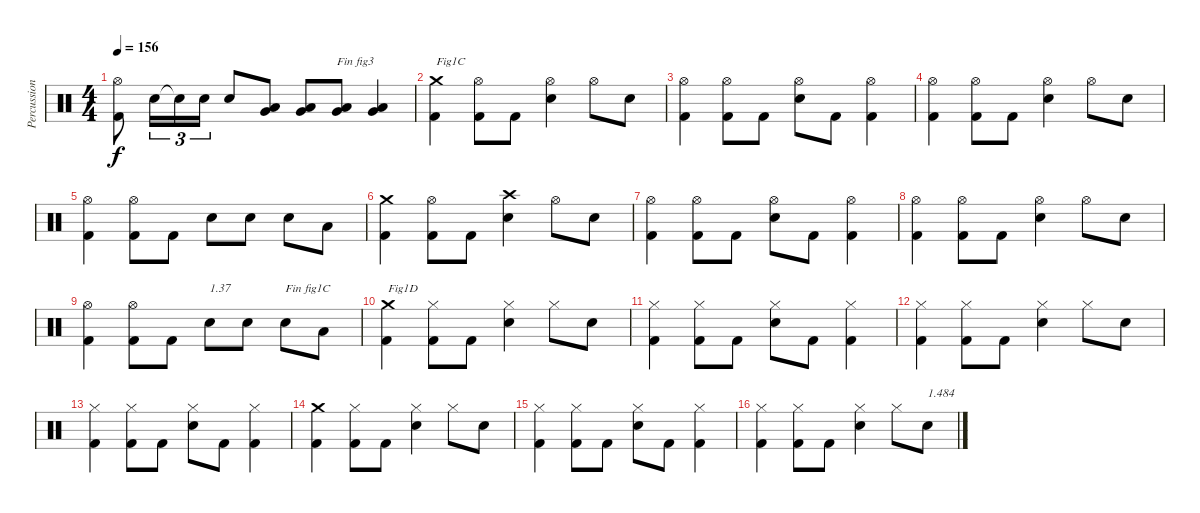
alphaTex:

\track ("Percussions" "Percussion") {instrument percussion}
\staff {score}
\articulation defaults
\ts (4 4)
\tempo 156
\clef neutral
\ks c
("Kick (hit) 2" "Hi-Hat (open)").8{dy f} "Electric Snare (hit)".16{tu (3 2)} "Snare (hit)"{t}.16{tu (3 2)} "Electric Snare (hit)".16{tu (3 2)} "Electric Snare (hit)".8 ("Very Low Tom (hit)" "Low Tom (hit)").8 ("Very Low Tom (hit)" "Low Tom (hit)").8 ("Low Floor Tom (hit)" "Very Low Tom (hit)").8{txt "Fin fig3"} ("Low Floor Tom (hit)" "Very Low Tom (hit)").4 |
("Kick (hit) 2" "Crash medium (hit)").4{txt "Fig1C"} ("Kick (hit) 2" "Hi-Hat (open)").8 "Kick (hit) 2".8 ("Electric Snare (hit)" "Hi-Hat (open)").4 "Hi-Hat (open)".8 "Electric Snare (hit)".8 |
("Kick (hit) 2" "Hi-Hat (open)").4 ("Kick (hit) 2" "Hi-Hat (open)").8 "Kick (hit) 2".8 ("Electric Snare (hit)" "Hi-Hat (open)").8 "Kick (hit) 2".8 ("Kick (hit) 2" "Hi-Hat (open)").4 |
("Kick (hit) 2" "Hi-Hat (open)").4 ("Kick (hit) 2" "Hi-Hat (open)").8 "Kick (hit) 2".8 ("Electric Snare (hit)" "Hi-Hat (open)").4 "Hi-Hat (open)".8 "Electric Snare (hit)".8 |
("Kick (hit) 2" "Hi-Hat (open)").4 ("Kick (hit) 2" "Hi-Hat (open)").8 "Kick (hit) 2".8 "Electric Snare (hit)".8 "Electric Snare (hit)".8 "Electric Snare (hit)".8 "Low Tom (hit)".8 |
("Kick (hit) 2" "Crash medium (hit)").4 ("Kick (hit) 2" "Hi-Hat (open)").8 "Kick (hit) 2".8 ("Electric Snare (hit)" "Crash high (hit)").4 "Hi-Hat (open)".8 "Electric Snare (hit)".8 |
("Kick (hit) 2" "Hi-Hat (open)").4 ("Kick (hit) 2" "Hi-Hat (open)").8 "Kick (hit) 2".8 ("Electric Snare (hit)" "Hi-Hat (open)").8 "Kick (hit) 2".8 ("Kick (hit) 2" "Hi-Hat (open)").4 |
("Kick (hit) 2" "Hi-Hat (open)").4 ("Kick (hit) 2" "Hi-Hat (open)").8 "Kick (hit) 2".8 ("Electric Snare (hit)" "Hi-Hat (open)").4 "Hi-Hat (open)".8 "Electric Snare (hit)".8 |
("Kick (hit) 2" "Hi-Hat (open)").4 ("Kick (hit) 2" "Hi-Hat (open)").8 "Kick (hit) 2".8 "Electric Snare (hit)".8{txt "1.37"} "Electric Snare (hit)".8 "Electric Snare (hit)".8{txt "Fin fig1C"} "Low Tom (hit)".8 |
("Kick (hit) 2" "Crash medium (hit)").4{txt "Fig1D"} ("Kick (hit) 2" "Hi-Hat (closed)").8 "Kick (hit) 2".8 ("Electric Snare (hit)" "Hi-Hat (closed)").4 "Hi-Hat (closed)".8 "Electric Snare (hit)".8 |
("Kick (hit) 2" "Hi-Hat (closed)").4 ("Kick (hit) 2" "Hi-Hat (closed)").8 "Kick (hit) 2".8 ("Electric Snare (hit)" "Hi-Hat (closed)").8 "Kick (hit) 2".8 ("Kick (hit) 2" "Hi-Hat (closed)").4 |
("Kick (hit) 2" "Hi-Hat (closed)").4 ("Kick (hit) 2" "Hi-Hat (closed)").8 "Kick (hit) 2".8 ("Electric Snare (hit)" "Hi-Hat (closed)").4 "Hi-Hat (closed)".8 "Electric Snare (hit)".8 |
("Kick (hit) 2" "Hi-Hat (closed)").4 ("Kick (hit) 2" "Hi-Hat (closed)").8 "Kick (hit) 2".8 ("Electric Snare (hit)" "Hi-Hat (closed)").8 "Kick (hit) 2".8 ("Kick (hit) 2" "Hi-Hat (closed)").4 |
("Kick (hit) 2" "Crash medium (hit)").4 ("Kick (hit) 2" "Hi-Hat (closed)").8 "Kick (hit) 2".8 ("Electric Snare (hit)" "Hi-Hat (closed)").4 "Hi-Hat (closed)".8 "Electric Snare (hit)".8 |
("Kick (hit) 2" "Hi-Hat (closed)").4 ("Kick (hit) 2" "Hi-Hat (closed)").8 "Kick (hit) 2".8 ("Electric Snare (hit)" "Hi-Hat (closed)").8 "Kick (hit) 2".8 ("Kick (hit) 2" "Hi-Hat (closed)").4 |
("Kick (hit) 2" "Hi-Hat (closed)").4 ("Kick (hit) 2" "Hi-Hat (closed)").8 "Kick (hit) 2".8 ("Electric Snare (hit)" "Hi-Hat (closed)").4 "Hi-Hat (closed)".8 "Electric Snare (hit)".8{txt "1.484"}
